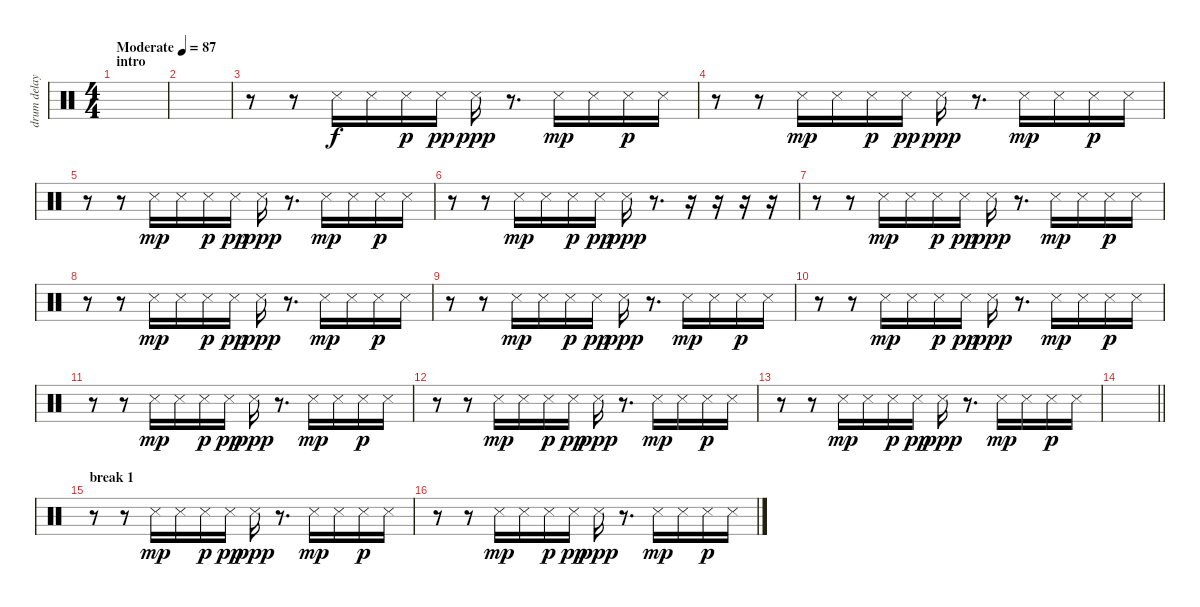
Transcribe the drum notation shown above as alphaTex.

\track ("drum delay" "drum delay") {instrument percussion}
\staff {score}
\articulation defaults
\ts (4 4)
\section ("" "intro")
\tempo (87 "Moderate")
\clef neutral
\ks c
|
|
r.8 r.8 "Snare (side stick) 3".16 "Snare (side stick) 3".16 "Snare (side stick) 3".16{dy p} "Snare (side stick) 3".16{dy pp} "Snare (side stick) 3".16{dy ppp} r.8{d} "Snare (side stick) 3".16{dy mp} "Snare (side stick) 3".16 "Snare (side stick) 3".16{dy p} "Snare (side stick) 3".16 |
r.8 r.8 "Snare (side stick) 3".16{dy mp} "Snare (side stick) 3".16 "Snare (side stick) 3".16{dy p} "Snare (side stick) 3".16{dy pp} "Snare (side stick) 3".16{dy ppp} r.8{d} "Snare (side stick) 3".16{dy mp} "Snare (side stick) 3".16 "Snare (side stick) 3".16{dy p} "Snare (side stick) 3".16 |
r.8 r.8 "Snare (side stick) 3".16{dy mp} "Snare (side stick) 3".16 "Snare (side stick) 3".16{dy p} "Snare (side stick) 3".16{dy pp} "Snare (side stick) 3".16{dy ppp} r.8{d} "Snare (side stick) 3".16{dy mp} "Snare (side stick) 3".16 "Snare (side stick) 3".16{dy p} "Snare (side stick) 3".16 |
r.8 r.8 "Snare (side stick) 3".16{dy mp} "Snare (side stick) 3".16 "Snare (side stick) 3".16{dy p} "Snare (side stick) 3".16{dy pp} "Snare (side stick) 3".16{dy ppp} r.8{d} r.16{volume 16} r.16 r.16 r.16 |
r.8 r.8 "Snare (side stick) 3".16{dy mp} "Snare (side stick) 3".16 "Snare (side stick) 3".16{dy p} "Snare (side stick) 3".16{dy pp} "Snare (side stick) 3".16{dy ppp} r.8{d} "Snare (side stick) 3".16{dy mp} "Snare (side stick) 3".16 "Snare (side stick) 3".16{dy p} "Snare (side stick) 3".16 |
r.8 r.8 "Snare (side stick) 3".16{dy mp} "Snare (side stick) 3".16 "Snare (side stick) 3".16{dy p} "Snare (side stick) 3".16{dy pp} "Snare (side stick) 3".16{dy ppp} r.8{d} "Snare (side stick) 3".16{dy mp} "Snare (side stick) 3".16 "Snare (side stick) 3".16{dy p} "Snare (side stick) 3".16 |
r.8 r.8 "Snare (side stick) 3".16{dy mp} "Snare (side stick) 3".16 "Snare (side stick) 3".16{dy p} "Snare (side stick) 3".16{dy pp} "Snare (side stick) 3".16{dy ppp} r.8{d} "Snare (side stick) 3".16{dy mp} "Snare (side stick) 3".16 "Snare (side stick) 3".16{dy p} "Snare (side stick) 3".16 |
r.8 r.8 "Snare (side stick) 3".16{dy mp} "Snare (side stick) 3".16 "Snare (side stick) 3".16{dy p} "Snare (side stick) 3".16{dy pp} "Snare (side stick) 3".16{dy ppp} r.8{d} "Snare (side stick) 3".16{dy mp} "Snare (side stick) 3".16 "Snare (side stick) 3".16{dy p} "Snare (side stick) 3".16 |
r.8 r.8 "Snare (side stick) 3".16{dy mp} "Snare (side stick) 3".16 "Snare (side stick) 3".16{dy p} "Snare (side stick) 3".16{dy pp} "Snare (side stick) 3".16{dy ppp} r.8{d} "Snare (side stick) 3".16{dy mp} "Snare (side stick) 3".16 "Snare (side stick) 3".16{dy p} "Snare (side stick) 3".16 |
r.8 r.8 "Snare (side stick) 3".16{dy mp} "Snare (side stick) 3".16 "Snare (side stick) 3".16{dy p} "Snare (side stick) 3".16{dy pp} "Snare (side stick) 3".16{dy ppp} r.8{d} "Snare (side stick) 3".16{dy mp} "Snare (side stick) 3".16 "Snare (side stick) 3".16{dy p} "Snare (side stick) 3".16 |
r.8 r.8 "Snare (side stick) 3".16{dy mp} "Snare (side stick) 3".16 "Snare (side stick) 3".16{dy p} "Snare (side stick) 3".16{dy pp} "Snare (side stick) 3".16{dy ppp} r.8{d} "Snare (side stick) 3".16{dy mp} "Snare (side stick) 3".16 "Snare (side stick) 3".16{dy p} "Snare (side stick) 3".16 |
\barLineRight lightlight
|
\section ("" "break 1")
r.8{volume 6} r.8 "Snare (side stick) 3".16{dy mp} "Snare (side stick) 3".16 "Snare (side stick) 3".16{dy p} "Snare (side stick) 3".16{dy pp} "Snare (side stick) 3".16{dy ppp} r.8{d} "Snare (side stick) 3".16{dy mp} "Snare (side stick) 3".16 "Snare (side stick) 3".16{dy p} "Snare (side stick) 3".16 |
r.8 r.8 "Snare (side stick) 3".16{dy mp} "Snare (side stick) 3".16 "Snare (side stick) 3".16{dy p} "Snare (side stick) 3".16{dy pp} "Snare (side stick) 3".16{dy ppp} r.8{d} "Snare (side stick) 3".16{dy mp} "Snare (side stick) 3".16 "Snare (side stick) 3".16{dy p} "Snare (side stick) 3".16
